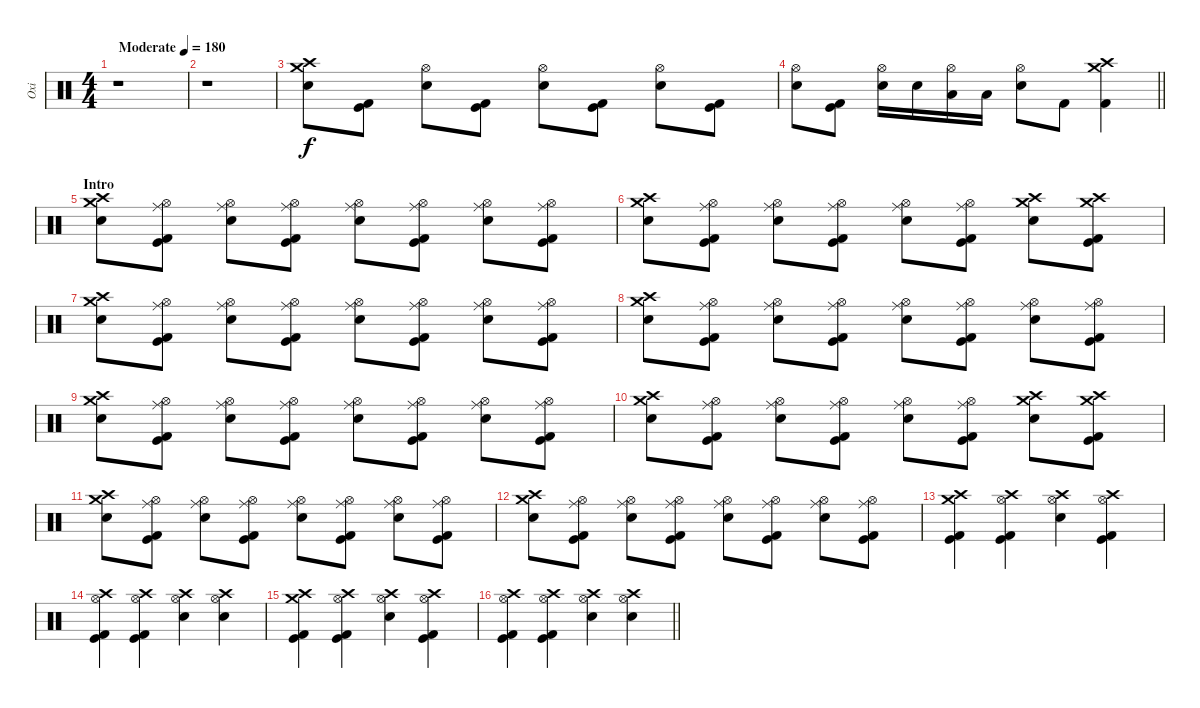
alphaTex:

\track ("Oxi" "Oxi") {instrument percussion}
\staff {score}
\articulation defaults
\ts (4 4)
\tempo (180 "Moderate")
\clef neutral
\ks c
r.1{dy f} |
r.1 |
("Crash medium (hit)" "Crash high (hit)" "Electric Snare (hit)").8{volume 16} ("Kick (hit) 2" "Kick (hit)").8 ("Hi-Hat (open)" "Electric Snare (hit)").8 ("Kick (hit) 2" "Kick (hit)").8 ("Hi-Hat (open)" "Electric Snare (hit)").8 ("Kick (hit) 2" "Kick (hit)").8 ("Hi-Hat (open)" "Electric Snare (hit)").8 ("Kick (hit) 2" "Kick (hit)").8 |
\barLineRight lightlight
("Hi-Hat (open)" "Electric Snare (hit)").8 ("Kick (hit) 2" "Kick (hit)").8 ("Hi-Hat (open)" "Electric Snare (hit)").16 "Snare (hit) 2".16 ("Hi-Hat (open)" "Low Tom (hit)").16 "Low Floor Tom (hit)".16 ("Hi-Hat (open)" "Electric Snare (hit)").8 "Kick (hit) 2".8 ("Crash medium (hit)" "Crash high (hit)" "Kick (hit) 2").4 |
\section ("" "Intro")
("Crash medium (hit)" "Crash high (hit)" "Electric Snare (hit)").8 ("Hi-Hat (open)" "Ride (middle)" "Kick (hit) 2" "Kick (hit)").8 ("Hi-Hat (open)" "Ride (middle)" "Electric Snare (hit)").8 ("Hi-Hat (open)" "Ride (middle)" "Kick (hit) 2" "Kick (hit)").8 ("Hi-Hat (open)" "Ride (middle)" "Electric Snare (hit)").8 ("Hi-Hat (open)" "Ride (middle)" "Kick (hit) 2" "Kick (hit)").8 ("Hi-Hat (open)" "Ride (middle)" "Electric Snare (hit)").8 ("Hi-Hat (open)" "Ride (middle)" "Kick (hit) 2" "Kick (hit)").8 |
("Crash medium (hit)" "Crash high (hit)" "Electric Snare (hit)").8 ("Hi-Hat (open)" "Ride (middle)" "Kick (hit) 2" "Kick (hit)").8 ("Hi-Hat (open)" "Ride (middle)" "Electric Snare (hit)").8 ("Hi-Hat (open)" "Ride (middle)" "Kick (hit) 2" "Kick (hit)").8 ("Hi-Hat (open)" "Ride (middle)" "Electric Snare (hit)").8 ("Hi-Hat (open)" "Ride (middle)" "Kick (hit) 2" "Kick (hit)").8 ("Crash medium (hit)" "Crash high (hit)" "Electric Snare (hit)").8 ("Crash medium (hit)" "Crash high (hit)" "Kick (hit) 2" "Kick (hit)").8 |
("Crash medium (hit)" "Crash high (hit)" "Electric Snare (hit)").8 ("Hi-Hat (open)" "Ride (middle)" "Kick (hit) 2" "Kick (hit)").8 ("Hi-Hat (open)" "Ride (middle)" "Electric Snare (hit)").8 ("Hi-Hat (open)" "Ride (middle)" "Kick (hit) 2" "Kick (hit)").8 ("Hi-Hat (open)" "Ride (middle)" "Electric Snare (hit)").8 ("Hi-Hat (open)" "Ride (middle)" "Kick (hit) 2" "Kick (hit)").8 ("Hi-Hat (open)" "Ride (middle)" "Electric Snare (hit)").8 ("Hi-Hat (open)" "Ride (middle)" "Kick (hit) 2" "Kick (hit)").8 |
("Crash medium (hit)" "Crash high (hit)" "Electric Snare (hit)").8 ("Hi-Hat (open)" "Ride (middle)" "Kick (hit) 2" "Kick (hit)").8 ("Hi-Hat (open)" "Ride (middle)" "Electric Snare (hit)").8 ("Hi-Hat (open)" "Ride (middle)" "Kick (hit) 2" "Kick (hit)").8 ("Hi-Hat (open)" "Ride (middle)" "Electric Snare (hit)").8 ("Hi-Hat (open)" "Ride (middle)" "Kick (hit) 2" "Kick (hit)").8 ("Hi-Hat (open)" "Ride (middle)" "Electric Snare (hit)").8 ("Hi-Hat (open)" "Ride (middle)" "Kick (hit) 2" "Kick (hit)").8 |
("Crash medium (hit)" "Crash high (hit)" "Electric Snare (hit)").8 ("Hi-Hat (open)" "Ride (middle)" "Kick (hit) 2" "Kick (hit)").8 ("Hi-Hat (open)" "Ride (middle)" "Electric Snare (hit)").8 ("Hi-Hat (open)" "Ride (middle)" "Kick (hit) 2" "Kick (hit)").8 ("Hi-Hat (open)" "Ride (middle)" "Electric Snare (hit)").8 ("Hi-Hat (open)" "Ride (middle)" "Kick (hit) 2" "Kick (hit)").8 ("Hi-Hat (open)" "Ride (middle)" "Electric Snare (hit)").8 ("Hi-Hat (open)" "Ride (middle)" "Kick (hit) 2" "Kick (hit)").8 |
("Crash medium (hit)" "Crash high (hit)" "Electric Snare (hit)").8 ("Hi-Hat (open)" "Ride (middle)" "Kick (hit) 2" "Kick (hit)").8 ("Hi-Hat (open)" "Ride (middle)" "Electric Snare (hit)").8 ("Hi-Hat (open)" "Ride (middle)" "Kick (hit) 2" "Kick (hit)").8 ("Hi-Hat (open)" "Ride (middle)" "Electric Snare (hit)").8 ("Hi-Hat (open)" "Ride (middle)" "Kick (hit) 2" "Kick (hit)").8 ("Crash medium (hit)" "Crash high (hit)" "Electric Snare (hit)").8 ("Crash medium (hit)" "Crash high (hit)" "Kick (hit) 2" "Kick (hit)").8 |
("Crash medium (hit)" "Crash high (hit)" "Electric Snare (hit)").8 ("Hi-Hat (open)" "Ride (middle)" "Kick (hit) 2" "Kick (hit)").8 ("Hi-Hat (open)" "Ride (middle)" "Electric Snare (hit)").8 ("Hi-Hat (open)" "Ride (middle)" "Kick (hit) 2" "Kick (hit)").8 ("Hi-Hat (open)" "Ride (middle)" "Electric Snare (hit)").8 ("Hi-Hat (open)" "Ride (middle)" "Kick (hit) 2" "Kick (hit)").8 ("Hi-Hat (open)" "Ride (middle)" "Electric Snare (hit)").8 ("Hi-Hat (open)" "Ride (middle)" "Kick (hit) 2" "Kick (hit)").8 |
("Crash medium (hit)" "Crash high (hit)" "Electric Snare (hit)").8 ("Hi-Hat (open)" "Ride (middle)" "Kick (hit) 2" "Kick (hit)").8 ("Hi-Hat (open)" "Ride (middle)" "Electric Snare (hit)").8 ("Hi-Hat (open)" "Ride (middle)" "Kick (hit) 2" "Kick (hit)").8 ("Hi-Hat (open)" "Ride (middle)" "Electric Snare (hit)").8 ("Hi-Hat (open)" "Ride (middle)" "Kick (hit) 2" "Kick (hit)").8 ("Hi-Hat (open)" "Ride (middle)" "Electric Snare (hit)").8 ("Hi-Hat (open)" "Ride (middle)" "Kick (hit) 2" "Kick (hit)").8 |
("Crash medium (hit)" "Crash high (hit)" "Kick (hit) 2" "Kick (hit)").4 ("Crash high (hit)" "Hi-Hat (open)" "Kick (hit) 2" "Kick (hit)").4 ("Crash high (hit)" "Hi-Hat (open)" "Electric Snare (hit)").4 ("Crash high (hit)" "Hi-Hat (open)" "Kick (hit) 2" "Kick (hit)").4 |
("Crash high (hit)" "Hi-Hat (open)" "Kick (hit) 2" "Kick (hit)").4 ("Crash high (hit)" "Hi-Hat (open)" "Kick (hit) 2" "Kick (hit)").4 ("Crash high (hit)" "Hi-Hat (open)" "Electric Snare (hit)").4 ("Crash high (hit)" "Hi-Hat (open)" "Electric Snare (hit)").4 |
("Crash medium (hit)" "Crash high (hit)" "Kick (hit) 2" "Kick (hit)").4 ("Crash high (hit)" "Hi-Hat (open)" "Kick (hit) 2" "Kick (hit)").4 ("Crash high (hit)" "Hi-Hat (open)" "Electric Snare (hit)").4 ("Crash high (hit)" "Hi-Hat (open)" "Kick (hit) 2" "Kick (hit)").4 |
\barLineRight lightlight
("Crash high (hit)" "Hi-Hat (open)" "Kick (hit) 2" "Kick (hit)").4 ("Crash high (hit)" "Hi-Hat (open)" "Kick (hit) 2" "Kick (hit)").4 ("Crash high (hit)" "Hi-Hat (open)" "Electric Snare (hit)").4 ("Crash high (hit)" "Hi-Hat (open)" "Electric Snare (hit)").4
